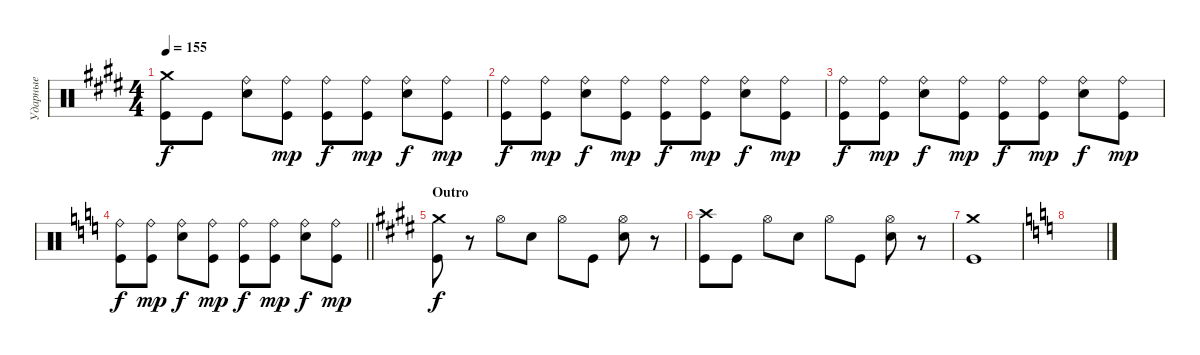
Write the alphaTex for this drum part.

\track ("Ударные" "Ударные") {instrument percussion}
\staff {score}
\articulation defaults
\ts (4 4)
\tempo 155
\clef neutral
\ks e
("Crash medium (hit)" "Kick (hit)").8{dy f} "Kick (hit)".8 ("Ride (bell)" "Electric Snare (hit)").8 ("Ride (bell)" "Kick (hit)").8{dy mp} ("Ride (bell)" "Kick (hit)").8{dy f} ("Ride (bell)" "Kick (hit)").8{dy mp} ("Ride (bell)" "Electric Snare (hit)").8{dy f} ("Ride (bell)" "Kick (hit)").8{dy mp} |
("Ride (bell)" "Kick (hit)").8{dy f} ("Ride (bell)" "Kick (hit)").8{dy mp} ("Ride (bell)" "Electric Snare (hit)").8{dy f} ("Ride (bell)" "Kick (hit)").8{dy mp} ("Ride (bell)" "Kick (hit)").8{dy f} ("Ride (bell)" "Kick (hit)").8{dy mp} ("Ride (bell)" "Electric Snare (hit)").8{dy f} ("Ride (bell)" "Kick (hit)").8{dy mp} |
("Ride (bell)" "Kick (hit)").8{dy f} ("Ride (bell)" "Kick (hit)").8{dy mp} ("Ride (bell)" "Electric Snare (hit)").8{dy f} ("Ride (bell)" "Kick (hit)").8{dy mp} ("Ride (bell)" "Kick (hit)").8{dy f} ("Ride (bell)" "Kick (hit)").8{dy mp} ("Ride (bell)" "Electric Snare (hit)").8{dy f} ("Ride (bell)" "Kick (hit)").8{dy mp} |
\barLineRight lightlight
\ks c
("Ride (bell)" "Kick (hit)").8{dy f} ("Ride (bell)" "Kick (hit)").8{dy mp} ("Ride (bell)" "Electric Snare (hit)").8{dy f} ("Ride (bell)" "Kick (hit)").8{dy mp} ("Ride (bell)" "Kick (hit)").8{dy f} ("Ride (bell)" "Kick (hit)").8{dy mp} ("Ride (bell)" "Electric Snare (hit)").8{dy f} ("Ride (bell)" "Kick (hit)").8{dy mp} |
\section ("" "Outro")
\ks e
("Crash medium (hit)" "Kick (hit)").8{dy f} r.8 "Hi-Hat (open)".8 "Electric Snare (hit)".8 "Hi-Hat (open)".8 "Kick (hit)".8 ("Hi-Hat (open)" "Electric Snare (hit)").8 r.8 |
("Crash high (hit)" "Kick (hit)").8 "Kick (hit)".8 "Hi-Hat (open)".8 "Electric Snare (hit)".8 "Hi-Hat (open)".8 "Kick (hit)".8 ("Hi-Hat (open)" "Electric Snare (hit)").8 r.8 |
("Crash medium (hit)" "Kick (hit)").1 |
\ks c
